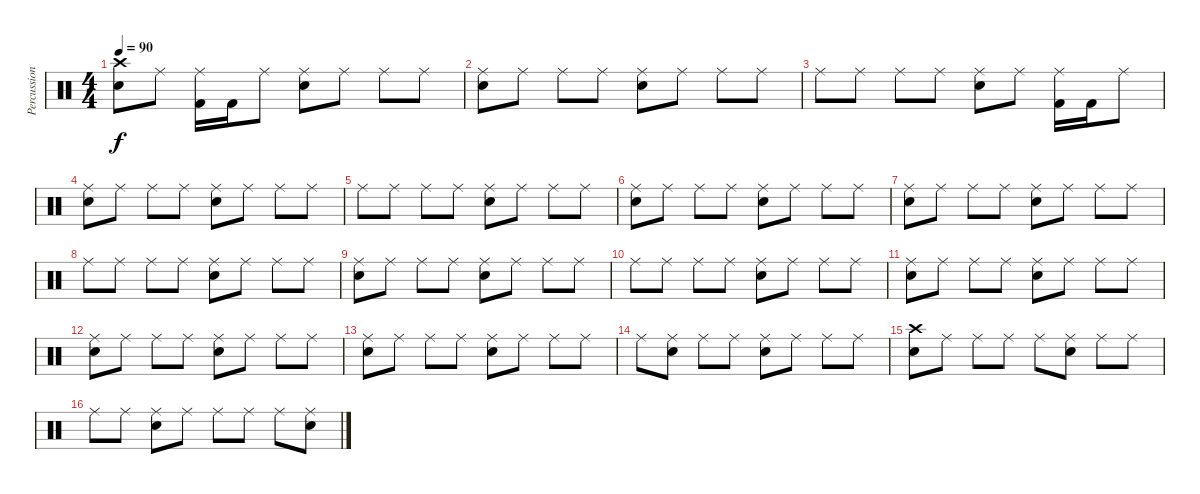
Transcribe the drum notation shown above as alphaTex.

\track ("Percussion" "Percussion") {instrument percussion}
\staff {score}
\articulation defaults
\ts (4 4)
\tempo 90
\clef neutral
\ks c
("Snare (hit) 2" "Crash high (hit)").8{dy f} "Ride (middle)".8 ("Kick (hit) 2" "Ride (middle)").16 "Kick (hit) 2".16 "Ride (middle)".8 ("Snare (hit) 2" "Ride (middle)").8 "Ride (middle)".8 "Ride (middle)".8 "Ride (middle)".8 |
("Snare (hit) 2" "Ride (middle)").8 "Ride (middle)".8 "Ride (middle)".8 "Ride (middle)".8 ("Snare (hit) 2" "Ride (middle)").8 "Ride (middle)".8 "Ride (middle)".8 "Ride (middle)".8 |
"Ride (middle)".8 "Ride (middle)".8 "Ride (middle)".8 "Ride (middle)".8 ("Snare (hit) 2" "Ride (middle)").8 "Ride (middle)".8 ("Kick (hit) 2" "Ride (middle)").16 "Kick (hit) 2".16 "Ride (middle)".8 |
("Snare (hit) 2" "Ride (middle)").8 "Ride (middle)".8 "Ride (middle)".8 "Ride (middle)".8 ("Snare (hit) 2" "Ride (middle)").8 "Ride (middle)".8 "Ride (middle)".8 "Ride (middle)".8 |
"Ride (middle)".8 "Ride (middle)".8 "Ride (middle)".8 "Ride (middle)".8 ("Snare (hit) 2" "Ride (middle)").8 "Ride (middle)".8 "Ride (middle)".8 "Ride (middle)".8 |
("Snare (hit) 2" "Ride (middle)").8 "Ride (middle)".8 "Ride (middle)".8 "Ride (middle)".8 ("Snare (hit) 2" "Ride (middle)").8 "Ride (middle)".8 "Ride (middle)".8 "Ride (middle)".8 |
("Snare (hit) 2" "Ride (middle)").8 "Ride (middle)".8 "Ride (middle)".8 "Ride (middle)".8 ("Snare (hit) 2" "Ride (middle)").8 "Ride (middle)".8 "Ride (middle)".8 "Ride (middle)".8 |
"Ride (middle)".8 "Ride (middle)".8 "Ride (middle)".8 "Ride (middle)".8 ("Snare (hit) 2" "Ride (middle)").8 "Ride (middle)".8 "Ride (middle)".8 "Ride (middle)".8 |
("Snare (hit) 2" "Ride (middle)").8 "Ride (middle)".8 "Ride (middle)".8 "Ride (middle)".8 ("Snare (hit) 2" "Ride (middle)").8 "Ride (middle)".8 "Ride (middle)".8 "Ride (middle)".8 |
"Ride (middle)".8 "Ride (middle)".8 "Ride (middle)".8 "Ride (middle)".8 ("Snare (hit) 2" "Ride (middle)").8 "Ride (middle)".8 "Ride (middle)".8 "Ride (middle)".8 |
("Snare (hit) 2" "Ride (middle)").8 "Ride (middle)".8 "Ride (middle)".8 "Ride (middle)".8 ("Snare (hit) 2" "Ride (middle)").8 "Ride (middle)".8 "Ride (middle)".8 "Ride (middle)".8 |
("Snare (hit) 2" "Ride (middle)").8 "Ride (middle)".8 "Ride (middle)".8 "Ride (middle)".8 ("Snare (hit) 2" "Ride (middle)").8 "Ride (middle)".8 "Ride (middle)".8 "Ride (middle)".8 |
("Snare (hit) 2" "Ride (middle)").8 "Ride (middle)".8 "Ride (middle)".8 "Ride (middle)".8 ("Snare (hit) 2" "Ride (middle)").8 "Ride (middle)".8 "Ride (middle)".8 "Ride (middle)".8 |
"Ride (middle)".8 ("Snare (hit) 2" "Ride (middle)").8 "Ride (middle)".8 "Ride (middle)".8 ("Snare (hit) 2" "Ride (middle)").8 "Ride (middle)".8 "Ride (middle)".8 "Ride (middle)".8 |
("Snare (hit) 2" "Crash high (hit)").8 "Ride (middle)".8 "Ride (middle)".8 "Ride (middle)".8 "Ride (middle)".8 ("Snare (hit) 2" "Ride (middle)").8 "Ride (middle)".8 "Ride (middle)".8 |
"Ride (middle)".8 "Ride (middle)".8 ("Snare (hit) 2" "Ride (middle)").8 "Ride (middle)".8 "Ride (middle)".8 "Ride (middle)".8 "Ride (middle)".8 ("Snare (hit) 2" "Ride (middle)").8
